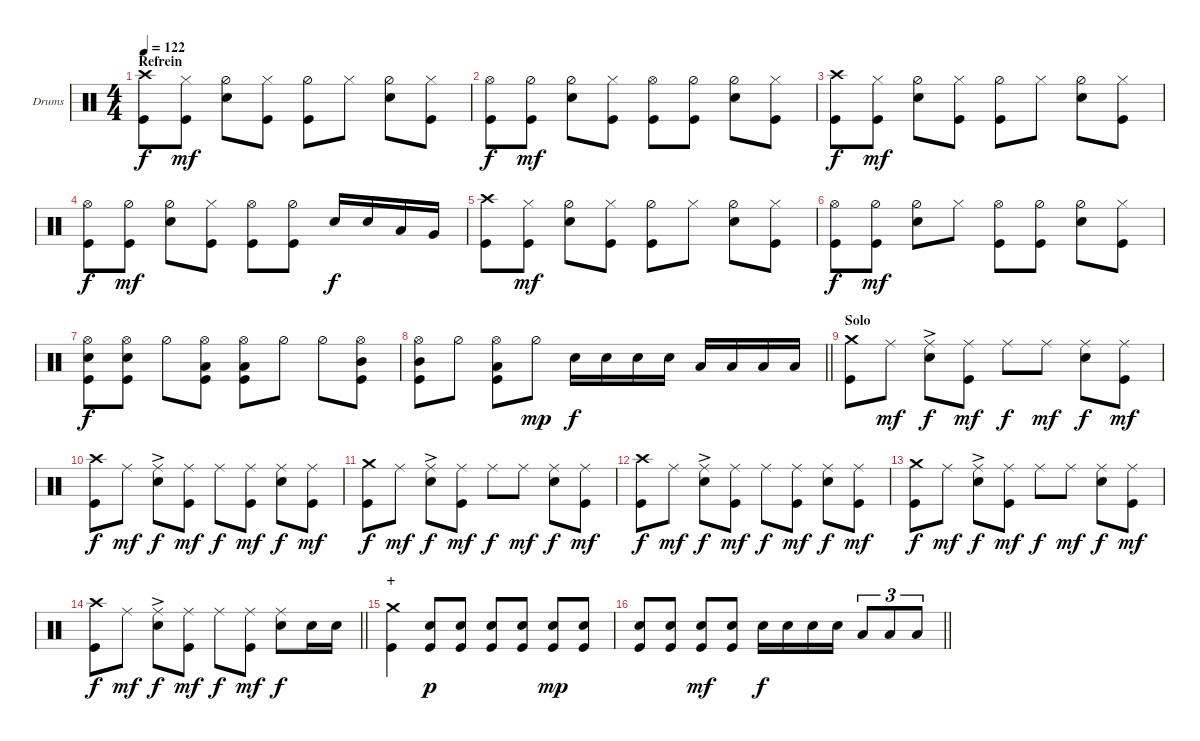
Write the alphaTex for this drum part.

\bracketExtendMode groupsimilarinstruments
\firstSystemTrackNameOrientation horizontal
\otherSystemsTrackNameOrientation horizontal
\track ("Batteria" "Drums") {instrument percussion}
\staff {score}
\articulation defaults
\ts (4 4)
\section ("" "Refrein")
\tempo 122
\clef neutral
\ks c
("Kick (hit)" "Crash high (hit)").8{dy f} ("Hi-Hat (closed)" "Kick (hit)").8{dy mf} ("Hi-Hat (half)" "Snare (hit) 2").8 ("Hi-Hat (closed)" "Kick (hit)").8 ("Hi-Hat (half)" "Kick (hit)").8 "Hi-Hat (closed)".8 ("Hi-Hat (half)" "Snare (hit) 2").8 ("Hi-Hat (closed)" "Kick (hit)").8 |
("Kick (hit)" "Hi-Hat (open)").8{dy f} ("Hi-Hat (half)" "Kick (hit)").8{dy mf} ("Hi-Hat (half)" "Snare (hit) 2").8 ("Hi-Hat (closed)" "Kick (hit)").8 ("Hi-Hat (open)" "Kick (hit)").8 ("Hi-Hat (half)" "Kick (hit)").8 ("Hi-Hat (half)" "Snare (hit) 2").8 ("Hi-Hat (closed)" "Kick (hit)").8 |
("Kick (hit)" "Crash high (hit)").8{dy f} ("Hi-Hat (closed)" "Kick (hit)").8{dy mf} ("Hi-Hat (half)" "Snare (hit) 2").8 ("Hi-Hat (closed)" "Kick (hit)").8 ("Hi-Hat (half)" "Kick (hit)").8 "Hi-Hat (closed)".8 ("Hi-Hat (half)" "Snare (hit) 2").8 ("Hi-Hat (closed)" "Kick (hit)").8 |
("Kick (hit)" "Hi-Hat (open)").8{dy f} ("Hi-Hat (half)" "Kick (hit)").8{dy mf} ("Hi-Hat (half)" "Snare (hit) 2").8 ("Hi-Hat (closed)" "Kick (hit)").8 ("Hi-Hat (open)" "Kick (hit)").8 ("Hi-Hat (half)" "Kick (hit)").8 "Snare (hit) 2".16{dy f} "Snare (hit) 2".16 "Low Tom (hit)".16 "Very Low Tom (hit)".16 |
("Kick (hit)" "Crash high (hit)").8 ("Hi-Hat (closed)" "Kick (hit)").8{dy mf} ("Hi-Hat (half)" "Snare (hit) 2").8 ("Hi-Hat (closed)" "Kick (hit)").8 ("Hi-Hat (half)" "Kick (hit)").8 "Hi-Hat (closed)".8 ("Hi-Hat (half)" "Snare (hit) 2").8 ("Hi-Hat (closed)" "Kick (hit)").8 |
("Kick (hit)" "Hi-Hat (open)").8{dy f} ("Hi-Hat (half)" "Kick (hit)").8{dy mf} ("Hi-Hat (half)" "Snare (hit) 2").8 "Hi-Hat (closed)".8 ("Hi-Hat (open)" "Kick (hit)").8 ("Hi-Hat (half)" "Kick (hit)").8 ("Hi-Hat (half)" "Snare (hit) 2").8 ("Hi-Hat (closed)" "Kick (hit)").8 |
("Hi-Hat (open)" "Snare (hit) 2" "Kick (hit)").8{dy f} ("Hi-Hat (open)" "Snare (hit) 2" "Kick (hit)").8 "Hi-Hat (half)".8 ("Low Tom (hit)" "Hi-Hat (open)" "Kick (hit)").8 ("Low Tom (hit)" "Hi-Hat (open)" "Kick (hit)").8 "Hi-Hat (half)".8 "Hi-Hat (half)".8 ("Hi-Hat (open)" "Kick (hit)" "Mid Tom (hit)").8 |
\barLineRight lightlight
("Kick (hit)" "Mid Tom (hit)" "Hi-Hat (open)").8 "Hi-Hat (half)".8 ("Low Tom (hit)" "Hi-Hat (open)" "Kick (hit)").8 "Hi-Hat (half)".8{dy mp} "Snare (hit) 2".16{dy f} "Snare (hit) 2".16 "Snare (hit) 2".16 "Snare (hit) 2".16 "Low Tom (hit)".16 "Low Tom (hit)".16 "Low Tom (hit)".16 "Low Tom (hit)".16 |
\section ("" "Solo")
("Kick (hit)" "Crash medium (hit)").8 "Ride (middle)".8{dy mf} ("Ride (middle)"{ac} "Snare (hit) 2").8{dy f} ("Ride (middle)" "Kick (hit)").8{dy mf} "Ride (middle)".8{dy f} "Ride (middle)".8{dy mf} ("Ride (middle)" "Snare (hit) 2").8{dy f} ("Ride (middle)" "Kick (hit)").8{dy mf} |
("Kick (hit)" "Crash high (hit)").8{dy f} "Ride (middle)".8{dy mf} ("Ride (middle)"{ac} "Snare (hit) 2").8{dy f} ("Ride (middle)" "Kick (hit)").8{dy mf} "Ride (middle)".8{dy f} ("Ride (middle)" "Kick (hit)").8{dy mf} ("Ride (middle)" "Snare (hit) 2").8{dy f} ("Ride (middle)" "Kick (hit)").8{dy mf} |
("Kick (hit)" "Crash medium (hit)").8{dy f} "Ride (middle)".8{dy mf} ("Ride (middle)"{ac} "Snare (hit) 2").8{dy f} ("Ride (middle)" "Kick (hit)").8{dy mf} "Ride (middle)".8{dy f} "Ride (middle)".8{dy mf} ("Ride (middle)" "Snare (hit) 2").8{dy f} ("Ride (middle)" "Kick (hit)").8{dy mf} |
("Kick (hit)" "Crash high (hit)").8{dy f} "Ride (middle)".8{dy mf} ("Ride (middle)"{ac} "Snare (hit) 2").8{dy f} ("Ride (middle)" "Kick (hit)").8{dy mf} "Ride (middle)".8{dy f} ("Ride (middle)" "Kick (hit)").8{dy mf} ("Ride (middle)" "Snare (hit) 2").8{dy f} ("Ride (middle)" "Kick (hit)").8{dy mf} |
("Kick (hit)" "Crash medium (hit)").8{dy f} "Ride (middle)".8{dy mf} ("Ride (middle)"{ac} "Snare (hit) 2").8{dy f} ("Ride (middle)" "Kick (hit)").8{dy mf} "Ride (middle)".8{dy f} "Ride (middle)".8{dy mf} ("Ride (middle)" "Snare (hit) 2").8{dy f} ("Ride (middle)" "Kick (hit)").8{dy mf} |
\barLineRight lightlight
("Kick (hit)" "Crash high (hit)").8{dy f} "Ride (middle)".8{dy mf} ("Ride (middle)"{ac} "Snare (hit) 2").8{dy f} ("Ride (middle)" "Kick (hit)").8{dy mf} "Ride (middle)".8{dy f} ("Ride (middle)" "Kick (hit)").8{dy mf} ("Ride (middle)" "Snare (hit) 2").8{dy f} "Snare (hit) 2".16 "Snare (hit) 2".16 |
\section ("" "+")
("Crash medium (hit)" "Kick (hit)").4 ("Snare (hit) 2" "Kick (hit)").8{dy p} ("Kick (hit)" "Snare (hit) 2").8 ("Kick (hit)" "Snare (hit) 2").8 ("Snare (hit) 2" "Kick (hit)").8 ("Snare (hit) 2" "Kick (hit)").8{dy mp} ("Snare (hit) 2" "Kick (hit)").8 |
\barLineRight lightlight
("Snare (hit) 2" "Kick (hit)").8 ("Snare (hit) 2" "Kick (hit)").8 ("Snare (hit) 2" "Kick (hit)").8{dy mf} ("Snare (hit) 2" "Kick (hit)").8 "Snare (hit) 2".16{dy f} "Snare (hit) 2".16 "Snare (hit) 2".16 "Snare (hit) 2".16 "Low Tom (hit)".8{tu (3 2)} "Low Tom (hit)".8{tu (3 2)} "Low Tom (hit)".8{tu (3 2)}
